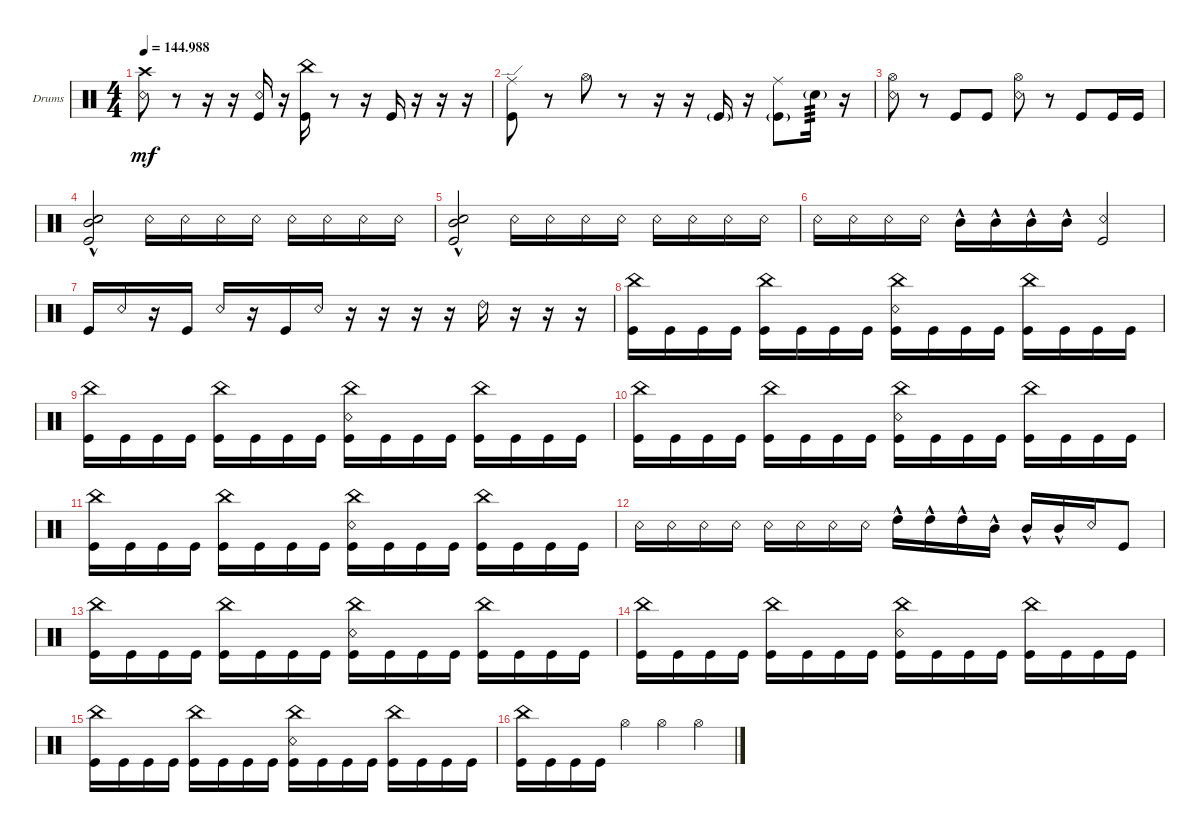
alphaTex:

\defaultSystemsLayout 4
\bracketExtendMode groupsimilarinstruments
\firstSystemTrackNameOrientation horizontal
\otherSystemsTrackNameOrientation horizontal
\track ("Drumkit" "Drums") {instrument percussion}
\staff {score}
\articulation defaults
\ts (4 4)
\tempo
144.988
\accidentals auto
\clef neutral
\ottava regular
\simile none
\ks c
("Snare (rim shot)" "Crash high (hit)").8{dy mf} r.8 r.16 r.16 ("Kick (hit)" "Snare (rim shot)").16 r.16 ("Kick (hit)" "China (hit)").16 r.8 r.16 "Kick (hit)".16 r.16 r.16 r.16 |
("Kick (hit)" "Ride (edge)").8 r.8 "Hi-Hat (open)".8 r.8 r.16 r.16 "Kick (hit)"{g}.16 r.16 ("Ride (middle)" "Kick (hit)"{g}).8 "Snare (hit) 2"{g}.16{tp 3} r.16 |
("Snare (rim shot)" "Hi-Hat (open)").8 r.8 "Kick (hit)".8 "Kick (hit)".8 ("Snare (rim shot)" "Hi-Hat (open)").8 r.8 "Kick (hit)".8 "Kick (hit)".16 "Kick (hit)".16 |
("Snare (hit) 2"{hac} "Kick (hit)" "Mid Tom (hit)"{hac}).2 "Snare (rim shot)".16 "Snare (rim shot)".16 "Snare (rim shot)".16 "Snare (rim shot)".16 "Snare (rim shot)".16 "Snare (rim shot)".16 "Snare (rim shot)".16 "Snare (rim shot)".16 |
("Snare (hit) 2"{hac} "Kick (hit)" "Mid Tom (hit)"{hac}).2 "Snare (rim shot)".16 "Snare (rim shot)".16 "Snare (rim shot)".16 "Snare (rim shot)".16 "Snare (rim shot)".16 "Snare (rim shot)".16 "Snare (rim shot)".16 "Snare (rim shot)".16 |
"Snare (rim shot)".16 "Snare (rim shot)".16 "Snare (rim shot)".16 "Snare (rim shot)".16 "Mid Tom (hit)"{hac}.16 "Mid Tom (hit)"{hac}.16 "Mid Tom (hit)"{hac}.16 "Mid Tom (hit)"{hac}.16 ("Kick (hit)" "Snare (rim shot)").2 |
"Kick (hit)".16 "Snare (rim shot)".16 r.16 "Kick (hit)".16 "Snare (rim shot)".16 r.16 "Kick (hit)".16 "Snare (rim shot)".16 r.16 r.16 r.16 r.16 "Ride (bell) 2".16 r.16 r.16 r.16 |
("Kick (hit)" "China (hit)").16 "Kick (hit)".16 "Kick (hit)".16 "Kick (hit)".16 ("Kick (hit)" "China (hit)").16 "Kick (hit)".16 "Kick (hit)".16 "Kick (hit)".16 ("Kick (hit)" "China (hit)" "Snare (rim shot)").16 "Kick (hit)".16 "Kick (hit)".16 "Kick (hit)".16 ("Kick (hit)" "China (hit)").16 "Kick (hit)".16 "Kick (hit)".16 "Kick (hit)".16 |
("Kick (hit)" "China (hit)").16 "Kick (hit)".16 "Kick (hit)".16 "Kick (hit)".16 ("Kick (hit)" "China (hit)").16 "Kick (hit)".16 "Kick (hit)".16 "Kick (hit)".16 ("Kick (hit)" "China (hit)" "Snare (rim shot)").16 "Kick (hit)".16 "Kick (hit)".16 "Kick (hit)".16 ("Kick (hit)" "China (hit)").16 "Kick (hit)".16 "Kick (hit)".16 "Kick (hit)".16 |
("Kick (hit)" "China (hit)").16 "Kick (hit)".16 "Kick (hit)".16 "Kick (hit)".16 ("Kick (hit)" "China (hit)").16 "Kick (hit)".16 "Kick (hit)".16 "Kick (hit)".16 ("Kick (hit)" "China (hit)" "Snare (rim shot)").16 "Kick (hit)".16 "Kick (hit)".16 "Kick (hit)".16 ("Kick (hit)" "China (hit)").16 "Kick (hit)".16 "Kick (hit)".16 "Kick (hit)".16 |
("Kick (hit)" "China (hit)").16 "Kick (hit)".16 "Kick (hit)".16 "Kick (hit)".16 ("Kick (hit)" "China (hit)").16 "Kick (hit)".16 "Kick (hit)".16 "Kick (hit)".16 ("Kick (hit)" "China (hit)" "Snare (rim shot)").16 "Kick (hit)".16 "Kick (hit)".16 "Kick (hit)".16 ("Kick (hit)" "China (hit)").16 "Kick (hit)".16 "Kick (hit)".16 "Kick (hit)".16 |
"Snare (rim shot)".16 "Snare (rim shot)".16 "Snare (rim shot)".16 "Snare (rim shot)".16 "Snare (rim shot)".16 "Snare (rim shot)".16 "Snare (rim shot)".16 "Snare (rim shot)".16 "High Tom (hit)"{hac}.16 "High Tom (hit)"{hac}.16 "High Tom (hit)"{hac}.16 "Mid Tom (hit)"{hac}.16 "Mid Tom (hit)"{hac}.16 "Mid Tom (hit)"{hac}.16 "Snare (rim shot)".16 "Kick (hit)".8 |
("Kick (hit)" "China (hit)").16 "Kick (hit)".16 "Kick (hit)".16 "Kick (hit)".16 ("Kick (hit)" "China (hit)").16 "Kick (hit)".16 "Kick (hit)".16 "Kick (hit)".16 ("Kick (hit)" "China (hit)" "Snare (rim shot)").16 "Kick (hit)".16 "Kick (hit)".16 "Kick (hit)".16 ("Kick (hit)" "China (hit)").16 "Kick (hit)".16 "Kick (hit)".16 "Kick (hit)".16 |
("Kick (hit)" "China (hit)").16 "Kick (hit)".16 "Kick (hit)".16 "Kick (hit)".16 ("Kick (hit)" "China (hit)").16 "Kick (hit)".16 "Kick (hit)".16 "Kick (hit)".16 ("Kick (hit)" "China (hit)" "Snare (rim shot)").16 "Kick (hit)".16 "Kick (hit)".16 "Kick (hit)".16 ("Kick (hit)" "China (hit)").16 "Kick (hit)".16 "Kick (hit)".16 "Kick (hit)".16 |
("Kick (hit)" "China (hit)").16 "Kick (hit)".16 "Kick (hit)".16 "Kick (hit)".16 ("Kick (hit)" "China (hit)").16 "Kick (hit)".16 "Kick (hit)".16 "Kick (hit)".16 ("Kick (hit)" "China (hit)" "Snare (rim shot)").16 "Kick (hit)".16 "Kick (hit)".16 "Kick (hit)".16 ("Kick (hit)" "China (hit)").16 "Kick (hit)".16 "Kick (hit)".16 "Kick (hit)".16 |
("Kick (hit)" "China (hit)").16 "Kick (hit)".16 "Kick (hit)".16 "Kick (hit)".16 "Hi-Hat (open)".4 "Hi-Hat (open)".4 "Hi-Hat (open)".4
